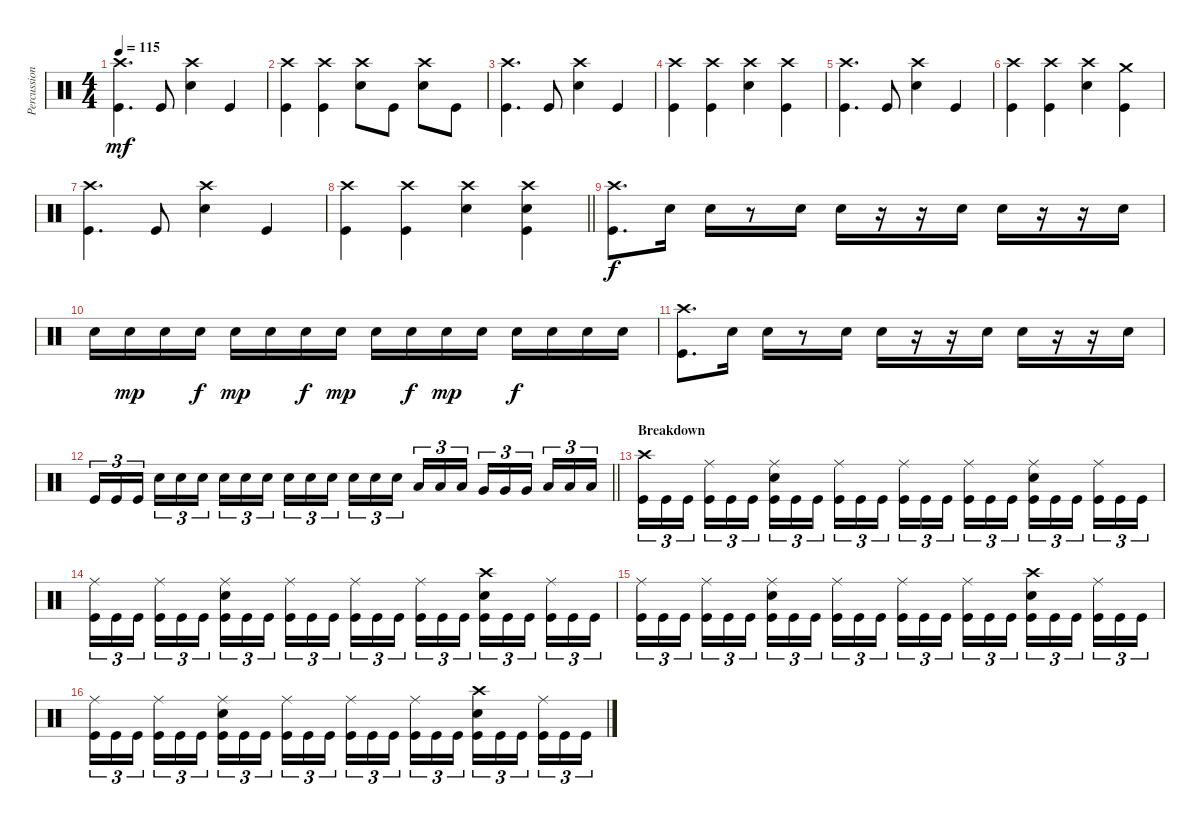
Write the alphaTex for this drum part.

\track ("Percussion" "Percussion") {instrument percussion}
\staff {score}
\articulation defaults
\ts (4 4)
\tempo 115
\clef neutral
\ks c
("Crash high (hit)" "Kick (hit)").4{d dy mf} "Kick (hit)".8 ("Snare (hit) 2" "Crash high (hit)").4 "Kick (hit)".4 |
("Crash high (hit)" "Kick (hit)").4 ("Crash high (hit)" "Kick (hit)").4 ("Snare (hit) 2" "Crash high (hit)").8 "Kick (hit)".8 ("Crash high (hit)" "Snare (hit) 2").8 "Kick (hit)".8 |
("Crash high (hit)" "Kick (hit)").4{d} "Kick (hit)".8 ("Snare (hit) 2" "Crash high (hit)").4 "Kick (hit)".4 |
("Crash high (hit)" "Kick (hit)").4 ("Crash high (hit)" "Kick (hit)").4 ("Snare (hit) 2" "Crash high (hit)").4 ("Crash high (hit)" "Kick (hit)").4 |
("Crash high (hit)" "Kick (hit)").4{d} "Kick (hit)".8 ("Snare (hit) 2" "Crash high (hit)").4 "Kick (hit)".4 |
("Crash high (hit)" "Kick (hit)").4 ("Crash high (hit)" "Kick (hit)").4 ("Snare (hit) 2" "Crash high (hit)").4 ("Crash medium (hit)" "Kick (hit)").4 |
("Crash high (hit)" "Kick (hit)").4{d} "Kick (hit)".8 ("Snare (hit) 2" "Crash high (hit)").4 "Kick (hit)".4 |
\barLineRight lightlight
("Crash high (hit)" "Kick (hit)").4 ("Crash high (hit)" "Kick (hit)").4 ("Snare (hit) 2" "Crash high (hit)").4 ("Snare (hit) 2" "Crash high (hit)" "Kick (hit)").4 |
("Crash high (hit)" "Kick (hit)").8{d dy f} "Snare (hit) 2".16 "Snare (hit) 2".16 r.8 "Snare (hit) 2".16 "Snare (hit) 2".16 r.16 r.16 "Snare (hit) 2".16 "Snare (hit) 2".16 r.16 r.16 "Snare (hit) 2".16 |
"Snare (hit) 2".16 "Snare (hit) 2".16{dy mp} "Snare (hit) 2".16 "Snare (hit) 2".16{dy f} "Snare (hit) 2".16{dy mp} "Snare (hit) 2".16 "Snare (hit) 2".16{dy f} "Snare (hit) 2".16{dy mp} "Snare (hit) 2".16 "Snare (hit) 2".16{dy f} "Snare (hit) 2".16{dy mp} "Snare (hit) 2".16 "Snare (hit) 2".16{dy f} "Snare (hit) 2".16 "Snare (hit) 2".16 "Snare (hit) 2".16 |
("Crash high (hit)" "Kick (hit)").8{d} "Snare (hit) 2".16 "Snare (hit) 2".16 r.8 "Snare (hit) 2".16 "Snare (hit) 2".16 r.16 r.16 "Snare (hit) 2".16 "Snare (hit) 2".16 r.16 r.16 "Snare (hit) 2".16 |
\barLineRight lightlight "Kick (hit)".16{tu (3 2)} "Kick (hit)".16{tu (3 2)} "Kick (hit)".16{tu (3 2)} "Snare (hit) 2".16{tu (3 2)} "Snare (hit) 2".16{tu (3 2)} "Snare (hit) 2".16{tu (3 2)} "Snare (hit) 2".16{tu (3 2)} "Snare (hit) 2".16{tu (3 2)} "Snare (hit) 2".16{tu (3 2)} "Snare (hit) 2".16{tu (3 2)} "Snare (hit) 2".16{tu (3 2)} "Snare (hit) 2".16{tu (3 2)} "Snare (hit) 2".16{tu (3 2)} "Snare (hit) 2".16{tu (3 2)} "Snare (hit) 2".16{tu (3 2)} "Low Tom (hit)".16{tu (3 2)} "Low Tom (hit)".16{tu (3 2)} "Low Tom (hit)".16{tu (3 2)} "Very Low Tom (hit)".16{tu (3 2)} "Very Low Tom (hit)".16{tu (3 2)} "Very Low Tom (hit)".16{tu (3 2)} "Low Floor Tom (hit)".16{tu (3 2)} "Low Floor Tom (hit)".16{tu (3 2)} "Low Floor Tom (hit)".16{tu (3 2)}
|
\section ("" "Breakdown")
("Crash high (hit)" "Kick (hit)").16{tu (3 2)} "Kick (hit)".16{tu (3 2)} "Kick (hit)".16{tu (3 2)} ("Ride (middle)" "Kick (hit)").16{tu (3 2)} "Kick (hit)".16{tu (3 2)} "Kick (hit)".16{tu (3 2)} ("Ride (middle)" "Snare (hit) 2" "Kick (hit)").16{tu (3 2)} "Kick (hit)".16{tu (3 2)} "Kick (hit)".16{tu (3 2)} ("Ride (middle)" "Kick (hit)").16{tu (3 2)} "Kick (hit)".16{tu (3 2)} "Kick (hit)".16{tu (3 2)} ("Ride (middle)" "Kick (hit)").16{tu (3 2)} "Kick (hit)".16{tu (3 2)} "Kick (hit)".16{tu (3 2)} ("Ride (middle)" "Kick (hit)").16{tu (3 2)} "Kick (hit)".16{tu (3 2)} "Kick (hit)".16{tu (3 2)} ("Ride (middle)" "Snare (hit) 2" "Kick (hit)").16{tu (3 2)} "Kick (hit)".16{tu (3 2)} "Kick (hit)".16{tu (3 2)} ("Ride (middle)" "Kick (hit)").16{tu (3 2)} "Kick (hit)".16{tu (3 2)} "Kick (hit)".16{tu (3 2)} |
("Ride (middle)" "Kick (hit)").16{tu (3 2)} "Kick (hit)".16{tu (3 2)} "Kick (hit)".16{tu (3 2)} ("Ride (middle)" "Kick (hit)").16{tu (3 2)} "Kick (hit)".16{tu (3 2)} "Kick (hit)".16{tu (3 2)} ("Ride (middle)" "Snare (hit) 2" "Kick (hit)").16{tu (3 2)} "Kick (hit)".16{tu (3 2)} "Kick (hit)".16{tu (3 2)} ("Ride (middle)" "Kick (hit)").16{tu (3 2)} "Kick (hit)".16{tu (3 2)} "Kick (hit)".16{tu (3 2)} ("Ride (middle)" "Kick (hit)").16{tu (3 2)} "Kick (hit)".16{tu (3 2)} "Kick (hit)".16{tu (3 2)} ("Ride (middle)" "Kick (hit)").16{tu (3 2)} "Kick (hit)".16{tu (3 2)} "Kick (hit)".16{tu (3 2)} ("Crash high (hit)" "Snare (hit) 2" "Kick (hit)").16{tu (3 2)} "Kick (hit)".16{tu (3 2)} "Kick (hit)".16{tu (3 2)} ("Ride (middle)" "Kick (hit)").16{tu (3 2)} "Kick (hit)".16{tu (3 2)} "Kick (hit)".16{tu (3 2)} |
("Ride (middle)" "Kick (hit)").16{tu (3 2)} "Kick (hit)".16{tu (3 2)} "Kick (hit)".16{tu (3 2)} ("Ride (middle)" "Kick (hit)").16{tu (3 2)} "Kick (hit)".16{tu (3 2)} "Kick (hit)".16{tu (3 2)} ("Ride (middle)" "Snare (hit) 2" "Kick (hit)").16{tu (3 2)} "Kick (hit)".16{tu (3 2)} "Kick (hit)".16{tu (3 2)} ("Ride (middle)" "Kick (hit)").16{tu (3 2)} "Kick (hit)".16{tu (3 2)} "Kick (hit)".16{tu (3 2)} ("Ride (middle)" "Kick (hit)").16{tu (3 2)} "Kick (hit)".16{tu (3 2)} "Kick (hit)".16{tu (3 2)} ("Ride (middle)" "Kick (hit)").16{tu (3 2)} "Kick (hit)".16{tu (3 2)} "Kick (hit)".16{tu (3 2)} ("Crash high (hit)" "Snare (hit) 2" "Kick (hit)").16{tu (3 2)} "Kick (hit)".16{tu (3 2)} "Kick (hit)".16{tu (3 2)} ("Ride (middle)" "Kick (hit)").16{tu (3 2)} "Kick (hit)".16{tu (3 2)} "Kick (hit)".16{tu (3 2)} |
("Ride (middle)" "Kick (hit)").16{tu (3 2)} "Kick (hit)".16{tu (3 2)} "Kick (hit)".16{tu (3 2)} ("Ride (middle)" "Kick (hit)").16{tu (3 2)} "Kick (hit)".16{tu (3 2)} "Kick (hit)".16{tu (3 2)} ("Ride (middle)" "Snare (hit) 2" "Kick (hit)").16{tu (3 2)} "Kick (hit)".16{tu (3 2)} "Kick (hit)".16{tu (3 2)} ("Ride (middle)" "Kick (hit)").16{tu (3 2)} "Kick (hit)".16{tu (3 2)} "Kick (hit)".16{tu (3 2)} ("Ride (middle)" "Kick (hit)").16{tu (3 2)} "Kick (hit)".16{tu (3 2)} "Kick (hit)".16{tu (3 2)} ("Ride (middle)" "Kick (hit)").16{tu (3 2)} "Kick (hit)".16{tu (3 2)} "Kick (hit)".16{tu (3 2)} ("Crash high (hit)" "Snare (hit) 2" "Kick (hit)").16{tu (3 2)} "Kick (hit)".16{tu (3 2)} "Kick (hit)".16{tu (3 2)} ("Ride (middle)" "Kick (hit)").16{tu (3 2)} "Kick (hit)".16{tu (3 2)} "Kick (hit)".16{tu (3 2)}
